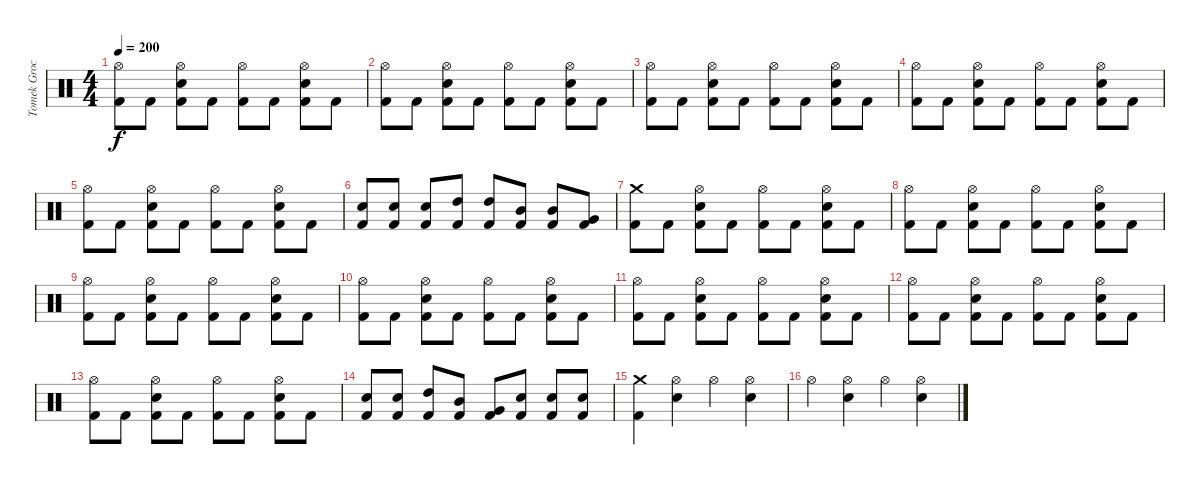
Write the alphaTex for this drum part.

\track ("Tomek Grochowski" "Tomek Groc") {instrument percussion}
\staff {score}
\articulation defaults
\ts (4 4)
\tempo 200
\clef neutral
\ks c
("Hi-Hat (open)" "Kick (hit) 2").8{dy f} "Kick (hit) 2".8 ("Hi-Hat (open)" "Electric Snare (hit)" "Kick (hit) 2").8 "Kick (hit) 2".8 ("Hi-Hat (open)" "Kick (hit) 2").8 "Kick (hit) 2".8 ("Hi-Hat (open)" "Electric Snare (hit)" "Kick (hit) 2").8 "Kick (hit) 2".8 |
("Hi-Hat (open)" "Kick (hit) 2").8 "Kick (hit) 2".8 ("Hi-Hat (open)" "Electric Snare (hit)" "Kick (hit) 2").8 "Kick (hit) 2".8 ("Hi-Hat (open)" "Kick (hit) 2").8 "Kick (hit) 2".8 ("Hi-Hat (open)" "Electric Snare (hit)" "Kick (hit) 2").8 "Kick (hit) 2".8 |
("Hi-Hat (open)" "Kick (hit) 2").8 "Kick (hit) 2".8 ("Hi-Hat (open)" "Electric Snare (hit)" "Kick (hit) 2").8 "Kick (hit) 2".8 ("Hi-Hat (open)" "Kick (hit) 2").8 "Kick (hit) 2".8 ("Hi-Hat (open)" "Electric Snare (hit)" "Kick (hit) 2").8 "Kick (hit) 2".8 |
("Hi-Hat (open)" "Kick (hit) 2").8 "Kick (hit) 2".8 ("Hi-Hat (open)" "Electric Snare (hit)" "Kick (hit) 2").8 "Kick (hit) 2".8 ("Hi-Hat (open)" "Kick (hit) 2").8 "Kick (hit) 2".8 ("Hi-Hat (open)" "Electric Snare (hit)" "Kick (hit) 2").8 "Kick (hit) 2".8 |
("Hi-Hat (open)" "Kick (hit) 2").8 "Kick (hit) 2".8 ("Hi-Hat (open)" "Electric Snare (hit)" "Kick (hit) 2").8 "Kick (hit) 2".8 ("Hi-Hat (open)" "Kick (hit) 2").8 "Kick (hit) 2".8 ("Hi-Hat (open)" "Electric Snare (hit)" "Kick (hit) 2").8 "Kick (hit) 2".8 |
("Electric Snare (hit)" "Kick (hit) 2").8 ("Electric Snare (hit)" "Kick (hit) 2").8 ("Electric Snare (hit)" "Kick (hit) 2").8 ("High Tom (hit)" "Kick (hit) 2").8 ("High Tom (hit)" "Kick (hit) 2").8 ("Mid Tom (hit)" "Kick (hit) 2").8 ("Mid Tom (hit)" "Kick (hit) 2").8 ("Very Low Tom (hit)" "Kick (hit) 2").8 |
("Crash medium (hit)" "Kick (hit) 2").8 "Kick (hit) 2".8 ("Hi-Hat (open)" "Electric Snare (hit)" "Kick (hit) 2").8 "Kick (hit) 2".8 ("Hi-Hat (open)" "Kick (hit) 2").8 "Kick (hit) 2".8 ("Hi-Hat (open)" "Electric Snare (hit)" "Kick (hit) 2").8 "Kick (hit) 2".8 |
("Hi-Hat (open)" "Kick (hit) 2").8 "Kick (hit) 2".8 ("Hi-Hat (open)" "Electric Snare (hit)" "Kick (hit) 2").8 "Kick (hit) 2".8 ("Hi-Hat (open)" "Kick (hit) 2").8 "Kick (hit) 2".8 ("Hi-Hat (open)" "Electric Snare (hit)" "Kick (hit) 2").8 "Kick (hit) 2".8 |
("Hi-Hat (open)" "Kick (hit) 2").8 "Kick (hit) 2".8 ("Hi-Hat (open)" "Electric Snare (hit)" "Kick (hit) 2").8 "Kick (hit) 2".8 ("Hi-Hat (open)" "Kick (hit) 2").8 "Kick (hit) 2".8 ("Hi-Hat (open)" "Electric Snare (hit)" "Kick (hit) 2").8 "Kick (hit) 2".8 |
("Hi-Hat (open)" "Kick (hit) 2").8 "Kick (hit) 2".8 ("Hi-Hat (open)" "Electric Snare (hit)" "Kick (hit) 2").8 "Kick (hit) 2".8 ("Hi-Hat (open)" "Kick (hit) 2").8 "Kick (hit) 2".8 ("Hi-Hat (open)" "Electric Snare (hit)" "Kick (hit) 2").8 "Kick (hit) 2".8 |
("Hi-Hat (open)" "Kick (hit) 2").8 "Kick (hit) 2".8 ("Hi-Hat (open)" "Electric Snare (hit)" "Kick (hit) 2").8 "Kick (hit) 2".8 ("Hi-Hat (open)" "Kick (hit) 2").8 "Kick (hit) 2".8 ("Hi-Hat (open)" "Electric Snare (hit)" "Kick (hit) 2").8 "Kick (hit) 2".8 |
("Hi-Hat (open)" "Kick (hit) 2").8 "Kick (hit) 2".8 ("Hi-Hat (open)" "Electric Snare (hit)" "Kick (hit) 2").8 "Kick (hit) 2".8 ("Hi-Hat (open)" "Kick (hit) 2").8 "Kick (hit) 2".8 ("Hi-Hat (open)" "Electric Snare (hit)" "Kick (hit) 2").8 "Kick (hit) 2".8 |
("Hi-Hat (open)" "Kick (hit) 2").8 "Kick (hit) 2".8 ("Hi-Hat (open)" "Electric Snare (hit)" "Kick (hit) 2").8 "Kick (hit) 2".8 ("Hi-Hat (open)" "Kick (hit) 2").8 "Kick (hit) 2".8 ("Hi-Hat (open)" "Electric Snare (hit)" "Kick (hit) 2").8 "Kick (hit) 2".8 |
("Electric Snare (hit)" "Kick (hit) 2").8 ("Electric Snare (hit)" "Kick (hit) 2").8 ("High Tom (hit)" "Kick (hit) 2").8 ("Mid Tom (hit)" "Kick (hit) 2").8 ("Very Low Tom (hit)" "Kick (hit) 2").8 ("Electric Snare (hit)" "Kick (hit) 2").8 ("Electric Snare (hit)" "Kick (hit) 2").8 ("Electric Snare (hit)" "Kick (hit) 2").8 |
("Crash medium (hit)" "Kick (hit) 2").4 ("Hi-Hat (open)" "Electric Snare (hit)").4 "Hi-Hat (open)".4 ("Hi-Hat (open)" "Electric Snare (hit)").4 |
"Hi-Hat (open)".4 ("Hi-Hat (open)" "Electric Snare (hit)").4 "Hi-Hat (open)".4 ("Hi-Hat (open)" "Electric Snare (hit)").4
